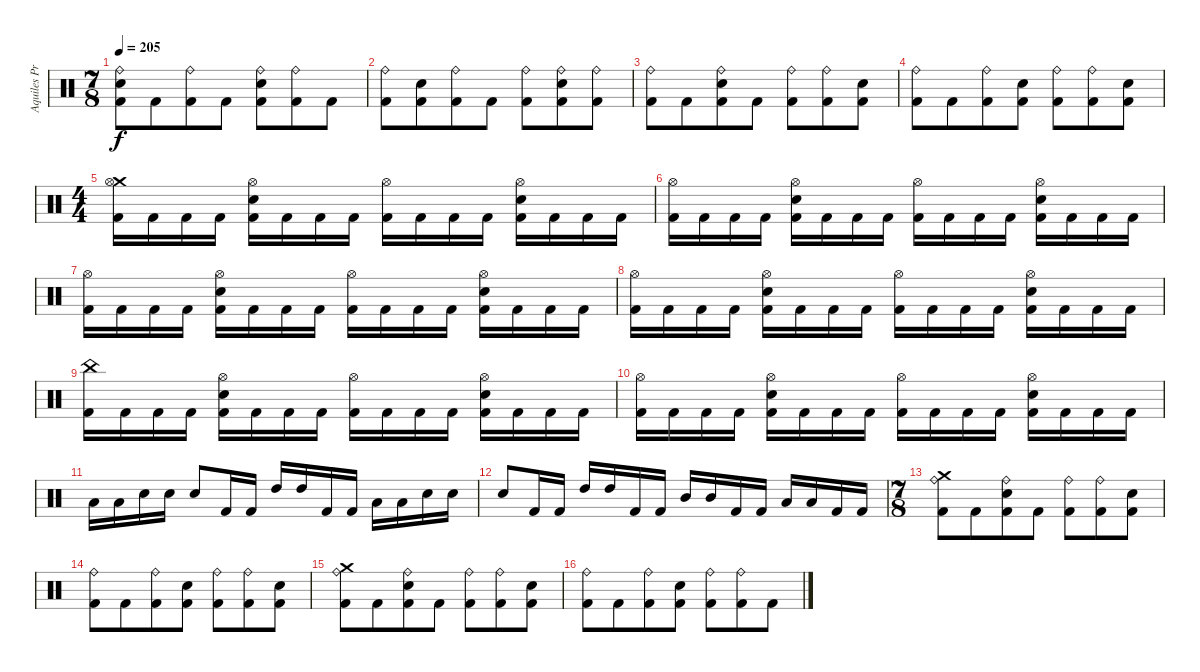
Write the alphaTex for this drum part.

\track ("Aquiles Priester" "Aquiles Pr") {instrument percussion}
\staff {score}
\articulation defaults
\ts (7 8)
\tempo 205
\clef neutral
\ks c
("Ride (bell)" "Electric Snare (hit)" "Kick (hit) 2").8{dy f} "Kick (hit) 2".8 ("Ride (bell)" "Kick (hit) 2").8 "Kick (hit) 2".8 ("Ride (bell)" "Electric Snare (hit)" "Kick (hit) 2").8 ("Ride (bell)" "Kick (hit) 2").8 "Kick (hit) 2".8 |
("Ride (bell)" "Kick (hit) 2").8 ("Electric Snare (hit)" "Kick (hit) 2").8 ("Ride (bell)" "Kick (hit) 2").8 "Kick (hit) 2".8 ("Ride (bell)" "Kick (hit) 2").8 ("Ride (bell)" "Electric Snare (hit)" "Kick (hit) 2").8 ("Ride (bell)" "Kick (hit) 2").8 |
("Ride (bell)" "Kick (hit) 2").8 "Kick (hit) 2".8 ("Ride (bell)" "Electric Snare (hit)" "Kick (hit) 2").8 "Kick (hit) 2".8 ("Ride (bell)" "Kick (hit) 2").8 ("Ride (bell)" "Kick (hit) 2").8 ("Electric Snare (hit)" "Kick (hit) 2").8 |
("Ride (bell)" "Kick (hit) 2").8 "Kick (hit) 2".8 ("Ride (bell)" "Kick (hit) 2").8 ("Electric Snare (hit)" "Kick (hit) 2").8 ("Ride (bell)" "Kick (hit) 2").8 ("Ride (bell)" "Kick (hit) 2").8 ("Electric Snare (hit)" "Kick (hit) 2").8 |
\ts (4 4)
("Crash medium (hit)" "Hi-Hat (open)" "Kick (hit) 2").16 "Kick (hit) 2".16 "Kick (hit) 2".16 "Kick (hit) 2".16 ("Hi-Hat (open)" "Electric Snare (hit)" "Kick (hit) 2").16 "Kick (hit) 2".16 "Kick (hit) 2".16 "Kick (hit) 2".16 ("Hi-Hat (open)" "Kick (hit) 2").16 "Kick (hit) 2".16 "Kick (hit) 2".16 "Kick (hit) 2".16 ("Hi-Hat (open)" "Electric Snare (hit)" "Kick (hit) 2").16 "Kick (hit) 2".16 "Kick (hit) 2".16 "Kick (hit) 2".16 |
("Hi-Hat (open)" "Kick (hit) 2").16 "Kick (hit) 2".16 "Kick (hit) 2".16 "Kick (hit) 2".16 ("Hi-Hat (open)" "Electric Snare (hit)" "Kick (hit) 2").16 "Kick (hit) 2".16 "Kick (hit) 2".16 "Kick (hit) 2".16 ("Hi-Hat (open)" "Kick (hit) 2").16 "Kick (hit) 2".16 "Kick (hit) 2".16 "Kick (hit) 2".16 ("Hi-Hat (open)" "Electric Snare (hit)" "Kick (hit) 2").16 "Kick (hit) 2".16 "Kick (hit) 2".16 "Kick (hit) 2".16 |
("Hi-Hat (open)" "Kick (hit) 2").16 "Kick (hit) 2".16 "Kick (hit) 2".16 "Kick (hit) 2".16 ("Hi-Hat (open)" "Electric Snare (hit)" "Kick (hit) 2").16 "Kick (hit) 2".16 "Kick (hit) 2".16 "Kick (hit) 2".16 ("Hi-Hat (open)" "Kick (hit) 2").16 "Kick (hit) 2".16 "Kick (hit) 2".16 "Kick (hit) 2".16 ("Hi-Hat (open)" "Electric Snare (hit)" "Kick (hit) 2").16 "Kick (hit) 2".16 "Kick (hit) 2".16 "Kick (hit) 2".16 |
("Hi-Hat (open)" "Kick (hit) 2").16 "Kick (hit) 2".16 "Kick (hit) 2".16 "Kick (hit) 2".16 ("Hi-Hat (open)" "Electric Snare (hit)" "Kick (hit) 2").16 "Kick (hit) 2".16 "Kick (hit) 2".16 "Kick (hit) 2".16 ("Hi-Hat (open)" "Kick (hit) 2").16 "Kick (hit) 2".16 "Kick (hit) 2".16 "Kick (hit) 2".16 ("Hi-Hat (open)" "Electric Snare (hit)" "Kick (hit) 2").16 "Kick (hit) 2".16 "Kick (hit) 2".16 "Kick (hit) 2".16 |
("China (hit)" "Kick (hit) 2").16 "Kick (hit) 2".16 "Kick (hit) 2".16 "Kick (hit) 2".16 ("Hi-Hat (open)" "Electric Snare (hit)" "Kick (hit) 2").16 "Kick (hit) 2".16 "Kick (hit) 2".16 "Kick (hit) 2".16 ("Hi-Hat (open)" "Kick (hit) 2").16 "Kick (hit) 2".16 "Kick (hit) 2".16 "Kick (hit) 2".16 ("Hi-Hat (open)" "Electric Snare (hit)" "Kick (hit) 2").16 "Kick (hit) 2".16 "Kick (hit) 2".16 "Kick (hit) 2".16 |
("Hi-Hat (open)" "Kick (hit) 2").16 "Kick (hit) 2".16 "Kick (hit) 2".16 "Kick (hit) 2".16 ("Hi-Hat (open)" "Electric Snare (hit)" "Kick (hit) 2").16 "Kick (hit) 2".16 "Kick (hit) 2".16 "Kick (hit) 2".16 ("Hi-Hat (open)" "Kick (hit) 2").16 "Kick (hit) 2".16 "Kick (hit) 2".16 "Kick (hit) 2".16 ("Hi-Hat (open)" "Electric Snare (hit)" "Kick (hit) 2").16 "Kick (hit) 2".16 "Kick (hit) 2".16 "Kick (hit) 2".16 |
"Low Tom (hit)".16 "Low Tom (hit)".16 "Electric Snare (hit)".16 "Electric Snare (hit)".16 "Electric Snare (hit)".8 "Kick (hit) 2".16 "Kick (hit) 2".16 "High Tom (hit)".16 "High Tom (hit)".16 "Kick (hit) 2".16 "Kick (hit) 2".16 "Low Tom (hit)".16 "Low Tom (hit)".16 "Electric Snare (hit)".16 "Electric Snare (hit)".16 |
"Electric Snare (hit)".8 "Kick (hit) 2".16 "Kick (hit) 2".16 "High Tom (hit)".16 "High Tom (hit)".16 "Kick (hit) 2".16 "Kick (hit) 2".16 "Mid Tom (hit)".16 "Mid Tom (hit)".16 "Kick (hit) 2".16 "Kick (hit) 2".16 "Low Tom (hit)".16 "Low Tom (hit)".16 "Kick (hit) 2".16 "Kick (hit) 2".16 |
\ts (7 8)
("Crash medium (hit)" "Ride (bell)" "Kick (hit) 2").8 "Kick (hit) 2".8 ("Ride (bell)" "Electric Snare (hit)" "Kick (hit) 2").8 "Kick (hit) 2".8 ("Ride (bell)" "Kick (hit) 2").8 ("Ride (bell)" "Kick (hit) 2").8 ("Electric Snare (hit)" "Kick (hit) 2").8 |
("Ride (bell)" "Kick (hit) 2").8 "Kick (hit) 2".8 ("Ride (bell)" "Kick (hit) 2").8 ("Electric Snare (hit)" "Kick (hit) 2").8 ("Ride (bell)" "Kick (hit) 2").8 ("Ride (bell)" "Kick (hit) 2").8 ("Electric Snare (hit)" "Kick (hit) 2").8 |
("Crash medium (hit)" "Ride (bell)" "Kick (hit) 2").8 "Kick (hit) 2".8 ("Ride (bell)" "Electric Snare (hit)" "Kick (hit) 2").8 "Kick (hit) 2".8 ("Ride (bell)" "Kick (hit) 2").8 ("Ride (bell)" "Kick (hit) 2").8 ("Electric Snare (hit)" "Kick (hit) 2").8 |
("Ride (bell)" "Kick (hit) 2").8 "Kick (hit) 2".8 ("Ride (bell)" "Kick (hit) 2").8 ("Electric Snare (hit)" "Kick (hit) 2").8 ("Ride (bell)" "Kick (hit) 2").8 ("Ride (bell)" "Kick (hit) 2").8 "Kick (hit) 2".8
